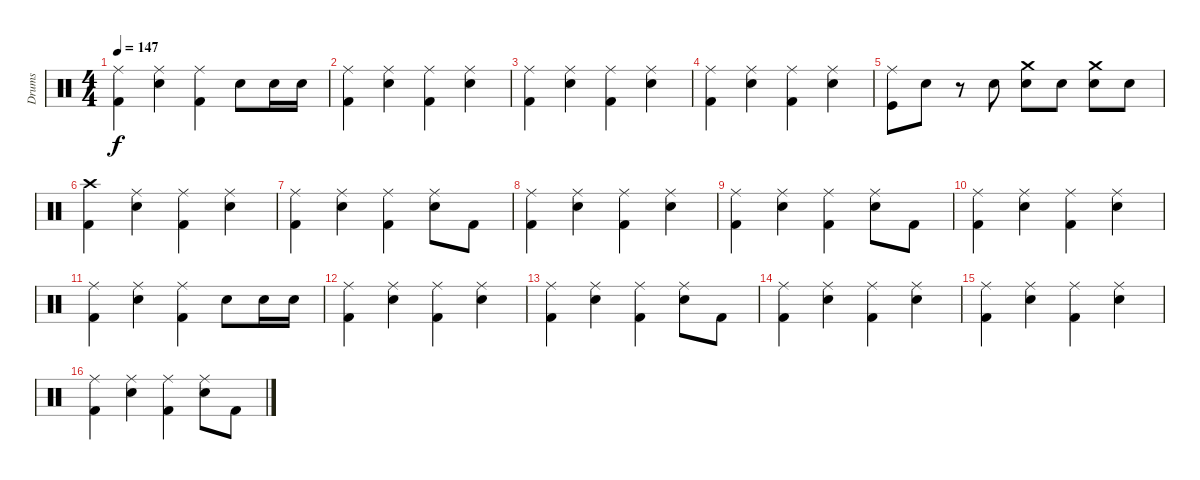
\track ("Drums" "Drums") {instrument percussion}
\staff {score}
\articulation defaults
\ts (4 4)
\tempo 147
\clef neutral
\ks c
("Ride (middle)" "Kick (hit) 2").4{dy f} ("Ride (middle)" "Snare (hit) 2").4 ("Ride (middle)" "Kick (hit) 2").4 "Snare (hit) 2".8 "Snare (hit) 2".16 "Snare (hit) 2".16 |
("Ride (middle)" "Kick (hit) 2").4 ("Ride (middle)" "Snare (hit) 2").4 ("Ride (middle)" "Kick (hit) 2").4 ("Ride (middle)" "Snare (hit) 2").4 |
("Ride (middle)" "Kick (hit) 2").4 ("Ride (middle)" "Snare (hit) 2").4 ("Ride (middle)" "Kick (hit) 2").4 ("Ride (middle)" "Snare (hit) 2").4 |
("Ride (middle)" "Kick (hit) 2").4 ("Ride (middle)" "Snare (hit) 2").4 ("Ride (middle)" "Kick (hit) 2").4 ("Ride (middle)" "Snare (hit) 2").4 |
("Ride (middle)" "Kick (hit)").8 "Snare (hit) 2".8 r.8 "Snare (hit) 2".8 ("Crash medium (hit)" "Snare (hit) 2").8 "Snare (hit) 2".8 ("Crash medium (hit)" "Snare (hit) 2").8 "Snare (hit) 2".8 |
("Crash high (hit)" "Kick (hit) 2").4 ("Ride (middle)" "Snare (hit) 2").4 ("Ride (middle)" "Kick (hit) 2").4 ("Ride (middle)" "Snare (hit) 2").4 |
("Ride (middle)" "Kick (hit) 2").4 ("Ride (middle)" "Snare (hit) 2").4 ("Ride (middle)" "Kick (hit) 2").4 ("Ride (middle)" "Snare (hit) 2").8 "Kick (hit) 2".8 |
("Ride (middle)" "Kick (hit) 2").4 ("Ride (middle)" "Snare (hit) 2").4 ("Ride (middle)" "Kick (hit) 2").4 ("Ride (middle)" "Snare (hit) 2").4 |
("Ride (middle)" "Kick (hit) 2").4 ("Ride (middle)" "Snare (hit) 2").4 ("Ride (middle)" "Kick (hit) 2").4 ("Ride (middle)" "Snare (hit) 2").8 "Kick (hit) 2".8 |
("Ride (middle)" "Kick (hit) 2").4 ("Ride (middle)" "Snare (hit) 2").4 ("Ride (middle)" "Kick (hit) 2").4 ("Ride (middle)" "Snare (hit) 2").4 |
("Ride (middle)" "Kick (hit) 2").4 ("Ride (middle)" "Snare (hit) 2").4 ("Ride (middle)" "Kick (hit) 2").4 "Snare (hit) 2".8 "Snare (hit) 2".16 "Snare (hit) 2".16 |
("Ride (middle)" "Kick (hit) 2").4 ("Ride (middle)" "Snare (hit) 2").4 ("Ride (middle)" "Kick (hit) 2").4 ("Ride (middle)" "Snare (hit) 2").4 |
("Ride (middle)" "Kick (hit) 2").4 ("Ride (middle)" "Snare (hit) 2").4 ("Ride (middle)" "Kick (hit) 2").4 ("Ride (middle)" "Snare (hit) 2").8 "Kick (hit) 2".8 |
("Ride (middle)" "Kick (hit) 2").4 ("Ride (middle)" "Snare (hit) 2").4 ("Ride (middle)" "Kick (hit) 2").4 ("Ride (middle)" "Snare (hit) 2").4 |
("Ride (middle)" "Kick (hit) 2").4 ("Ride (middle)" "Snare (hit) 2").4 ("Ride (middle)" "Kick (hit) 2").4 ("Ride (middle)" "Snare (hit) 2").4 |
("Ride (middle)" "Kick (hit) 2").4 ("Ride (middle)" "Snare (hit) 2").4 ("Ride (middle)" "Kick (hit) 2").4 ("Ride (middle)" "Snare (hit) 2").8 "Kick (hit) 2".8
